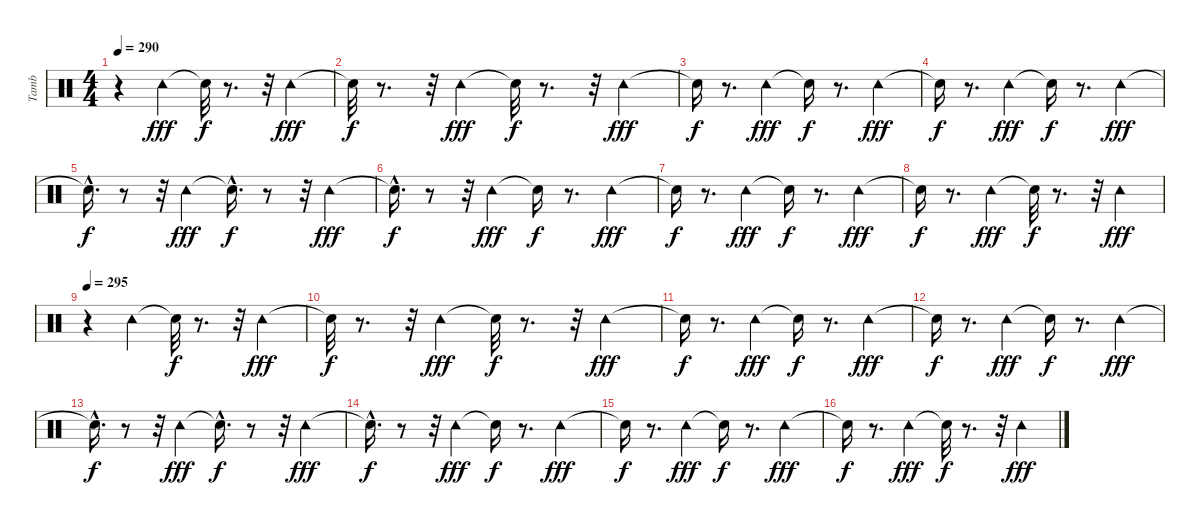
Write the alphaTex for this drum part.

\track ("Tamb" "Tamb") {instrument percussion}
\staff {score}
\articulation defaults
\ts (4 4)
\tempo 290
\clef neutral
\ks c
r.4{dy fff} "Tambourine (hit)".4 "Snare (hit)"{t}.32{dy f} r.8{d} r.32 "Tambourine (hit)".4{dy fff} |
"Snare (hit)"{t}.32{dy f} r.8{d} r.32 "Tambourine (hit)".4{dy fff} "Snare (hit)"{t}.32{dy f} r.8{d} r.32 "Tambourine (hit)".4{dy fff} |
"Snare (hit)"{t}.16{dy f} r.8{d} "Tambourine (hit)".4{dy fff} "Snare (hit)"{t}.16{dy f} r.8{d} "Tambourine (hit)".4{dy fff} |
"Snare (hit)"{t}.16{dy f} r.8{d} "Tambourine (hit)".4{dy fff} "Snare (hit)"{t}.16{dy f} r.8{d} "Tambourine (hit)".4{dy fff} |
"Snare (hit)"{hac t}.16{d dy f} r.8 r.32 "Tambourine (hit)".4{dy fff} "Snare (hit)"{hac t}.16{d dy f} r.8 r.32 "Tambourine (hit)".4{dy fff} |
"Snare (hit)"{hac t}.16{d dy f} r.8 r.32 "Tambourine (hit)".4{dy fff} "Snare (hit)"{t}.16{dy f} r.8{d} "Tambourine (hit)".4{dy fff} |
"Snare (hit)"{t}.16{dy f} r.8{d} "Tambourine (hit)".4{dy fff} "Snare (hit)"{t}.16{dy f} r.8{d} "Tambourine (hit)".4{dy fff} |
"Snare (hit)"{t}.16{dy f} r.8{d} "Tambourine (hit)".4{dy fff} "Snare (hit)"{t}.32{dy f} r.8{d} r.32 "Tambourine (hit)".4{dy fff} |
\tempo 295
r.4 "Tambourine (hit)".4 "Snare (hit)"{t}.32{dy f} r.8{d} r.32 "Tambourine (hit)".4{dy fff} |
"Snare (hit)"{t}.32{dy f} r.8{d} r.32 "Tambourine (hit)".4{dy fff} "Snare (hit)"{t}.32{dy f} r.8{d} r.32 "Tambourine (hit)".4{dy fff} |
"Snare (hit)"{t}.16{dy f} r.8{d} "Tambourine (hit)".4{dy fff} "Snare (hit)"{t}.16{dy f} r.8{d} "Tambourine (hit)".4{dy fff} |
"Snare (hit)"{t}.16{dy f} r.8{d} "Tambourine (hit)".4{dy fff} "Snare (hit)"{t}.16{dy f} r.8{d} "Tambourine (hit)".4{dy fff} |
"Snare (hit)"{hac t}.16{d dy f} r.8 r.32 "Tambourine (hit)".4{dy fff} "Snare (hit)"{hac t}.16{d dy f} r.8 r.32 "Tambourine (hit)".4{dy fff} |
"Snare (hit)"{hac t}.16{d dy f} r.8 r.32 "Tambourine (hit)".4{dy fff} "Snare (hit)"{t}.16{dy f} r.8{d} "Tambourine (hit)".4{dy fff} |
"Snare (hit)"{t}.16{dy f} r.8{d} "Tambourine (hit)".4{dy fff} "Snare (hit)"{t}.16{dy f} r.8{d} "Tambourine (hit)".4{dy fff} |
"Snare (hit)"{t}.16{dy f} r.8{d} "Tambourine (hit)".4{dy fff} "Snare (hit)"{t}.32{dy f} r.8{d} r.32 "Tambourine (hit)".4{dy fff}
